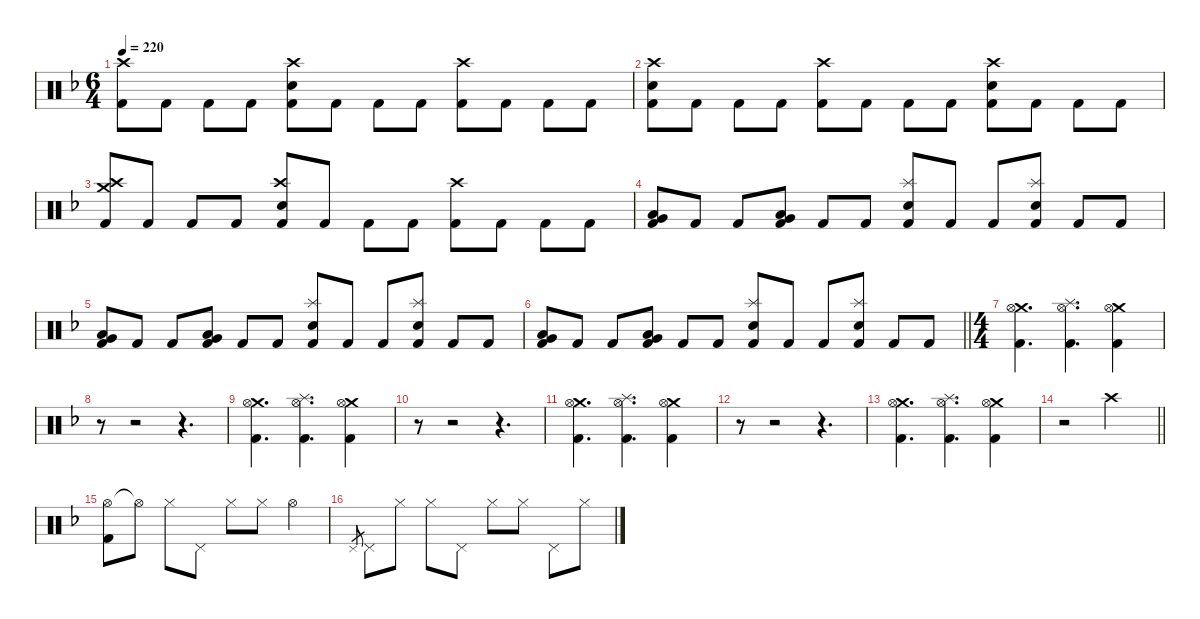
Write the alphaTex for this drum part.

\hideDynamics
\bracketExtendMode nobrackets
\singleTrackTrackNamePolicy hidden
\multiTrackTrackNamePolicy hidden
\firstSystemTrackNameMode fullname
\firstSystemTrackNameOrientation horizontal
\otherSystemsTrackNameOrientation horizontal
\track ("Drumkit" "Drums") {instrument percussion}
\staff {score}
\articulation defaults
\ts (6 4)
\tempo 220
\clef neutral
\ks dminor
("Crash high (hit)"{acc forcenatural} "Kick (hit) 2"{acc forcenatural}).8{dy f beam Down} "Kick (hit) 2"{acc forcenatural}.8{beam Down} "Kick (hit) 2"{acc forcenatural}.8{beam Down} "Kick (hit) 2"{acc forcenatural}.8{beam Down} ("Crash high (hit)"{acc forcenatural} "Snare (hit) 2"{acc forcenatural} "Kick (hit) 2"{acc forcenatural}).8{beam Down} "Kick (hit) 2"{acc forcenatural}.8{beam Down} "Kick (hit) 2"{acc forcenatural}.8{beam Down} "Kick (hit) 2"{acc forcenatural}.8{beam Down} ("Crash high (hit)"{acc forcenatural} "Kick (hit) 2"{acc forcenatural}).8{beam Down} "Kick (hit) 2"{acc forcenatural}.8{beam Down} "Kick (hit) 2"{acc forcenatural}.8{beam Down} "Kick (hit) 2"{acc forcenatural}.8{beam Down} |
("Crash high (hit)"{acc forcenatural} "Snare (hit) 2"{acc forcenatural} "Kick (hit) 2"{acc forcenatural}).8{beam Down} "Kick (hit) 2"{acc forcenatural}.8{beam Down} "Kick (hit) 2"{acc forcenatural}.8{beam Down} "Kick (hit) 2"{acc forcenatural}.8{beam Down} ("Crash high (hit)"{acc forcenatural} "Kick (hit) 2"{acc forcenatural}).8{beam Down} "Kick (hit) 2"{acc forcenatural}.8{beam Down} "Kick (hit) 2"{acc forcenatural}.8{beam Down} "Kick (hit) 2"{acc forcenatural}.8{beam Down} ("Crash high (hit)"{acc forcenatural} "Snare (hit) 2"{acc forcenatural} "Kick (hit) 2"{acc forcenatural}).8{beam Down} "Kick (hit) 2"{acc forcenatural}.8{beam Down} "Kick (hit) 2"{acc forcenatural}.8{beam Down} "Kick (hit) 2"{acc forcenatural}.8{beam Down} |
("Crash medium (hit)"{acc forcenatural} "Crash high (hit)"{acc forcenatural} "Kick (hit) 2"{acc forcenatural}).8{beam Up} "Kick (hit) 2"{acc forcenatural}.8{beam Up} "Kick (hit) 2"{acc forcenatural}.8{beam Up} "Kick (hit) 2"{acc forcenatural}.8{beam Up} ("Crash high (hit)"{acc forcenatural} "Snare (hit) 2"{acc forcenatural} "Kick (hit) 2"{acc forcenatural}).8{beam Up} "Kick (hit) 2"{acc forcenatural}.8{beam Up} "Kick (hit) 2"{acc forcenatural}.8{beam Down} "Kick (hit) 2"{acc forcenatural}.8{beam Down} ("Crash high (hit)"{acc forcenatural} "Kick (hit) 2"{acc forcenatural}).8{beam Down} "Kick (hit) 2"{acc forcenatural}.8{beam Down} "Kick (hit) 2"{acc forcenatural}.8{beam Down} "Kick (hit) 2"{acc forcenatural}.8{beam Down} |
("Very Low Tom (hit)"{acc forcenatural} "Low Tom (hit)"{acc forcenatural} "Kick (hit) 2"{acc forcenatural}).8{beam Up} "Kick (hit) 2"{acc forcenatural}.8{beam Up} "Kick (hit) 2"{acc forcenatural}.8{beam Up} ("Very Low Tom (hit)"{acc forcenatural} "Low Tom (hit)"{acc forcenatural} "Kick (hit) 2"{acc forcenatural}).8{beam Up} "Kick (hit) 2"{acc forcenatural}.8{beam Up} "Kick (hit) 2"{acc forcenatural}.8{beam Up} ("Splash (hit)"{acc forcenatural} "Snare (hit) 2"{acc forcenatural} "Kick (hit) 2"{acc forcenatural}).8{beam Up} "Kick (hit) 2"{acc forcenatural}.8{beam Up} "Kick (hit) 2"{acc forcenatural}.8{beam Up} ("Splash (hit)"{acc forcenatural} "Snare (hit) 2"{acc forcenatural} "Kick (hit) 2"{acc forcenatural}).8{beam Up} "Kick (hit) 2"{acc forcenatural}.8{beam Up} "Kick (hit) 2"{acc forcenatural}.8{beam Up} |
("Very Low Tom (hit)"{acc forcenatural} "Low Tom (hit)"{acc forcenatural} "Kick (hit) 2"{acc forcenatural}).8{beam Up} "Kick (hit) 2"{acc forcenatural}.8{beam Up} "Kick (hit) 2"{acc forcenatural}.8{beam Up} ("Very Low Tom (hit)"{acc forcenatural} "Low Tom (hit)"{acc forcenatural} "Kick (hit) 2"{acc forcenatural}).8{beam Up} "Kick (hit) 2"{acc forcenatural}.8{beam Up} "Kick (hit) 2"{acc forcenatural}.8{beam Up} ("Splash (hit)"{acc forcenatural} "Snare (hit) 2"{acc forcenatural} "Kick (hit) 2"{acc forcenatural}).8{beam Up} "Kick (hit) 2"{acc forcenatural}.8{beam Up} "Kick (hit) 2"{acc forcenatural}.8{beam Up} ("Splash (hit)"{acc forcenatural} "Snare (hit) 2"{acc forcenatural} "Kick (hit) 2"{acc forcenatural}).8{beam Up} "Kick (hit) 2"{acc forcenatural}.8{beam Up} "Kick (hit) 2"{acc forcenatural}.8{beam Up} |
\barLineRight lightlight
("Very Low Tom (hit)"{acc forcenatural} "Low Tom (hit)"{acc forcenatural} "Kick (hit) 2"{acc forcenatural}).8{beam Up} "Kick (hit) 2"{acc forcenatural}.8{beam Up} "Kick (hit) 2"{acc forcenatural}.8{beam Up} ("Very Low Tom (hit)"{acc forcenatural} "Low Tom (hit)"{acc forcenatural} "Kick (hit) 2"{acc forcenatural}).8{beam Up} "Kick (hit) 2"{acc forcenatural}.8{beam Up} "Kick (hit) 2"{acc forcenatural}.8{beam Up} ("Splash (hit)"{acc forcenatural} "Snare (hit) 2"{acc forcenatural} "Kick (hit) 2"{acc forcenatural}).8{beam Up} "Kick (hit) 2"{acc forcenatural}.8{beam Up} "Kick (hit) 2"{acc forcenatural}.8{beam Up} ("Splash (hit)"{acc forcenatural} "Snare (hit) 2"{acc forcenatural} "Kick (hit) 2"{acc forcenatural}).8{beam Up} "Kick (hit) 2"{acc forcenatural}.8{beam Up} "Kick (hit) 2"{acc forcenatural}.8{beam Up} |
\ts (4 4)
("Crash medium (hit)"{acc forcenatural} "Hi-Hat (open)"{acc forcenatural} "Kick (hit) 2"{acc forcenatural}).4{d beam Down} ("Splash (hit)"{acc forcenatural} "Hi-Hat (open)"{acc forcenatural} "Kick (hit) 2"{acc forcenatural}).4{d beam Down} ("Crash medium (hit)"{acc forcenatural} "Hi-Hat (open)"{acc forcenatural} "Kick (hit) 2"{acc forcenatural}).4{beam Down} |
r.8{beam Down} r.2{beam Down} r.4{d beam Down} |
("Crash medium (hit)"{acc forcenatural} "Hi-Hat (open)"{acc forcenatural} "Kick (hit) 2"{acc forcenatural}).4{d beam Down} ("Splash (hit)"{acc forcenatural} "Hi-Hat (open)"{acc forcenatural} "Kick (hit) 2"{acc forcenatural}).4{d beam Down} ("Crash medium (hit)"{acc forcenatural} "Hi-Hat (open)"{acc forcenatural} "Kick (hit) 2"{acc forcenatural}).4{beam Down} |
r.8{beam Down} r.2{beam Down} r.4{d beam Down} |
("Crash medium (hit)"{acc forcenatural} "Hi-Hat (open)"{acc forcenatural} "Kick (hit) 2"{acc forcenatural}).4{d beam Down} ("Splash (hit)"{acc forcenatural} "Hi-Hat (open)"{acc forcenatural} "Kick (hit) 2"{acc forcenatural}).4{d beam Down} ("Crash medium (hit)"{acc forcenatural} "Hi-Hat (open)"{acc forcenatural} "Kick (hit) 2"{acc forcenatural}).4{beam Down} |
r.8{beam Down} r.2{beam Down} r.4{d beam Down} |
("Crash medium (hit)"{acc forcenatural} "Hi-Hat (open)"{acc forcenatural} "Kick (hit) 2"{acc forcenatural}).4{d beam Down} ("Splash (hit)"{acc forcenatural} "Hi-Hat (open)"{acc forcenatural} "Kick (hit) 2"{acc forcenatural}).4{d beam Down} ("Crash medium (hit)"{acc forcenatural} "Hi-Hat (open)"{acc forcenatural} "Kick (hit) 2"{acc forcenatural}).4{beam Down} |
\barLineRight lightlight
r.2{beam Down} "Crash high (hit)"{acc forcenatural}.2{beam Down} |
("Hi-Hat (open)"{acc forcenatural} "Kick (hit) 2"{acc forcenatural}).8{dy mf beam Down} "Hi-Hat (open)"{t acc forcenatural}.8{dy f beam Down} "Hi-Hat (closed)"{acc forcenatural}.8{dy mp beam Down} "Pedal Hi-Hat (hit)"{acc forcenatural}.8{beam Down} "Hi-Hat (closed)"{acc forcenatural}.8{beam Down} "Hi-Hat (closed)"{acc forcenatural}.8{beam Down} "Hi-Hat (open)"{acc forcenatural}.4{dy mf beam Down} |
"Pedal Hi-Hat (hit)"{acc forcenatural}.8{gr dy p beam Up} "Pedal Hi-Hat (hit)"{acc forcenatural}.8{dy mf beam Down} "Hi-Hat (closed)"{acc forcenatural}.8{dy mp beam Down} "Hi-Hat (closed)"{acc forcenatural}.8{beam Down} "Pedal Hi-Hat (hit)"{acc forcenatural}.8{dy mf beam Down} "Hi-Hat (closed)"{acc forcenatural}.8{dy mp beam Down} "Hi-Hat (closed)"{acc forcenatural}.8{beam Down} "Pedal Hi-Hat (hit)"{acc forcenatural}.8{dy mf beam Down} "Hi-Hat (closed)"{acc forcenatural}.8{dy mp beam Down}
